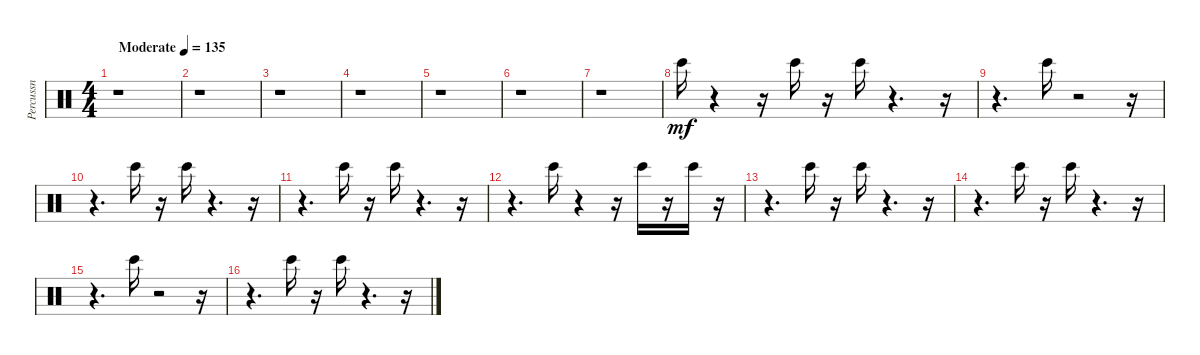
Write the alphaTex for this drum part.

\track ("Percussn" "Percussn") {instrument percussion}
\staff {score}
\articulation defaults
\ts (4 4)
\tempo (135 "Moderate")
\clef neutral
\ks c
r.1{dy mf} |
r.1 |
r.1 |
r.1 |
r.1 |
r.1 |
r.1 |
"Bongo High (hit)".16 r.4 r.16 "Bongo High (hit)".16{balance 9} r.16 "Bongo High (hit)".16{balance 8} r.4{d} r.16 |
r.4{d} "Bongo High (hit)".16{balance 1} r.2 r.16 |
r.4{d} "Bongo High (hit)".16{balance 5} r.16 "Bongo High (hit)".16{balance 15} r.4{d} r.16 |
r.4{d} "Bongo High (hit)".16{balance 7} r.16 "Bongo High (hit)".16{balance 2} r.4{d} r.16 |
r.4{d} "Bongo High (hit)".16{balance 7} r.4 r.16 "Bongo High (hit)".16{balance 14} r.16 "Bongo High (hit)".16{balance 13} r.16 |
r.4{d} "Bongo High (hit)".16{balance 12} r.16 "Bongo High (hit)".16{balance 1} r.4{d} r.16 |
r.4{d} "Bongo High (hit)".16{balance 4} r.16 "Bongo High (hit)".16{balance 4} r.4{d} r.16 |
r.4{d} "Bongo High (hit)".16{balance 10} r.2 r.16 |
r.4{d} "Bongo High (hit)".16{balance 10} r.16 "Bongo High (hit)".16{balance 10} r.4{d} r.16
